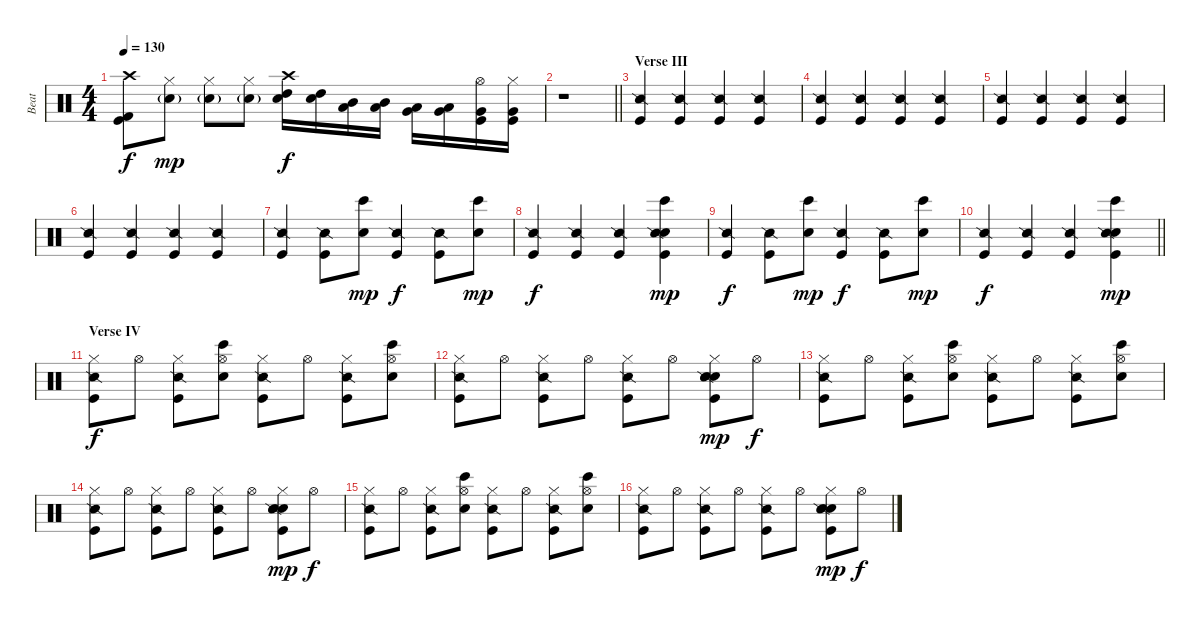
\track ("Beat" "Beat") {instrument percussion}
\staff {score}
\articulation defaults
\ts (4 4)
\tempo 130
\clef neutral
\ks c
("Crash high (hit)" "Kick (hit)" "Kick (hit) 2").8{dy f} ("Hi-Hat (closed)" "Snare (hit) 2"{g}).8{dy mp} ("Hi-Hat (closed)" "Snare (hit) 2"{g}).8 ("Hi-Hat (closed)" "Snare (hit) 2"{g}).8 ("Crash high (hit)" "High Tom (hit)" "Snare (hit) 2").16{dy f} ("High Tom (hit)" "Snare (hit) 2").16 ("Mid Tom (hit)" "Low Tom (hit)").16 ("Mid Tom (hit)" "Low Tom (hit)").16 ("Low Tom (hit)" "Very Low Tom (hit)").16 ("Low Tom (hit)" "Very Low Tom (hit)").16 ("Hi-Hat (open)" "Very Low Tom (hit)" "Kick (hit)").16 ("Hi-Hat (closed)" "Very Low Tom (hit)" "Kick (hit)").16 |
\barLineRight lightlight
r.1 |
\section ("" "Verse III")
("Snare (side stick) 2" "Kick (hit)").4 ("Snare (side stick) 2" "Kick (hit)").4 ("Snare (side stick) 2" "Kick (hit)").4 ("Snare (side stick) 2" "Kick (hit)").4 |
("Snare (side stick) 2" "Kick (hit)").4 ("Snare (side stick) 2" "Kick (hit)").4 ("Snare (side stick) 2" "Kick (hit)").4 ("Snare (side stick) 2" "Kick (hit)").4 |
("Snare (side stick) 2" "Kick (hit)").4 ("Snare (side stick) 2" "Kick (hit)").4 ("Snare (side stick) 2" "Kick (hit)").4 ("Snare (side stick) 2" "Kick (hit)").4 |
("Snare (side stick) 2" "Kick (hit)").4 ("Snare (side stick) 2" "Kick (hit)").4 ("Snare (side stick) 2" "Kick (hit)").4 ("Snare (side stick) 2" "Kick (hit)").4 |
("Snare (side stick) 2" "Kick (hit)").4 ("Snare (side stick) 2" "Kick (hit)").8 ("Bongo High (hit)" "Snare (hit) 2").8{dy mp} ("Snare (side stick) 2" "Kick (hit)").4{dy f} ("Snare (side stick) 2" "Kick (hit)").8 ("Bongo High (hit)" "Snare (hit) 2").8{dy mp} |
("Snare (side stick) 2" "Kick (hit)").4{dy f} ("Snare (side stick) 2" "Kick (hit)").4 ("Snare (side stick) 2" "Kick (hit)").4 ("Bongo High (hit)" "Snare (hit) 2" "Snare (side stick) 2" "Kick (hit)").4{dy mp} |
("Snare (side stick) 2" "Kick (hit)").4{dy f} ("Snare (side stick) 2" "Kick (hit)").8 ("Bongo High (hit)" "Snare (hit) 2").8{dy mp} ("Snare (side stick) 2" "Kick (hit)").4{dy f} ("Snare (side stick) 2" "Kick (hit)").8 ("Bongo High (hit)" "Snare (hit) 2").8{dy mp} |
\barLineRight lightlight
("Snare (side stick) 2" "Kick (hit)").4{dy f} ("Snare (side stick) 2" "Kick (hit)").4 ("Snare (side stick) 2" "Kick (hit)").4 ("Bongo High (hit)" "Snare (hit) 2" "Snare (side stick) 2" "Kick (hit)").4{dy mp} |
\section ("" "Verse IV")
("Hi-Hat (closed)" "Snare (side stick) 2" "Kick (hit)").8{dy f} "Hi-Hat (open)".8 ("Hi-Hat (closed)" "Snare (side stick) 2" "Kick (hit)").8 ("Hi-Hat (open)" "Hand Clap (hit)" "Bongo High (hit)").8 ("Hi-Hat (closed)" "Snare (side stick) 2" "Kick (hit)").8 "Hi-Hat (open)".8 ("Hi-Hat (closed)" "Snare (side stick) 2" "Kick (hit)").8 ("Hi-Hat (open)" "Hand Clap (hit)" "Bongo High (hit)").8 |
("Hi-Hat (closed)" "Snare (side stick) 2" "Kick (hit)").8 "Hi-Hat (open)".8 ("Hi-Hat (closed)" "Snare (side stick) 2" "Kick (hit)").8 "Hi-Hat (open)".8 ("Hi-Hat (closed)" "Snare (side stick) 2" "Kick (hit)").8 "Hi-Hat (open)".8 ("Hi-Hat (closed)" "Hand Clap (hit)" "Snare (hit) 2" "Snare (side stick) 2" "Kick (hit)").8{dy mp} "Hi-Hat (open)".8{dy f} |
("Hi-Hat (closed)" "Snare (side stick) 2" "Kick (hit)").8 "Hi-Hat (open)".8 ("Hi-Hat (closed)" "Snare (side stick) 2" "Kick (hit)").8 ("Hi-Hat (open)" "Hand Clap (hit)" "Bongo High (hit)").8 ("Hi-Hat (closed)" "Snare (side stick) 2" "Kick (hit)").8 "Hi-Hat (open)".8 ("Hi-Hat (closed)" "Snare (side stick) 2" "Kick (hit)").8 ("Hi-Hat (open)" "Hand Clap (hit)" "Bongo High (hit)").8 |
("Hi-Hat (closed)" "Snare (side stick) 2" "Kick (hit)").8 "Hi-Hat (open)".8 ("Hi-Hat (closed)" "Snare (side stick) 2" "Kick (hit)").8 "Hi-Hat (open)".8 ("Hi-Hat (closed)" "Snare (side stick) 2" "Kick (hit)").8 "Hi-Hat (open)".8 ("Hi-Hat (closed)" "Hand Clap (hit)" "Snare (hit) 2" "Snare (side stick) 2" "Kick (hit)").8{dy mp} "Hi-Hat (open)".8{dy f} |
("Hi-Hat (closed)" "Snare (side stick) 2" "Kick (hit)").8 "Hi-Hat (open)".8 ("Hi-Hat (closed)" "Snare (side stick) 2" "Kick (hit)").8 ("Hi-Hat (open)" "Hand Clap (hit)" "Bongo High (hit)").8 ("Hi-Hat (closed)" "Snare (side stick) 2" "Kick (hit)").8 "Hi-Hat (open)".8 ("Hi-Hat (closed)" "Snare (side stick) 2" "Kick (hit)").8 ("Hi-Hat (open)" "Hand Clap (hit)" "Bongo High (hit)").8 |
("Hi-Hat (closed)" "Snare (side stick) 2" "Kick (hit)").8 "Hi-Hat (open)".8 ("Hi-Hat (closed)" "Snare (side stick) 2" "Kick (hit)").8 "Hi-Hat (open)".8 ("Hi-Hat (closed)" "Snare (side stick) 2" "Kick (hit)").8 "Hi-Hat (open)".8 ("Hi-Hat (closed)" "Hand Clap (hit)" "Snare (hit) 2" "Snare (side stick) 2" "Kick (hit)").8{dy mp} "Hi-Hat (open)".8{dy f}
